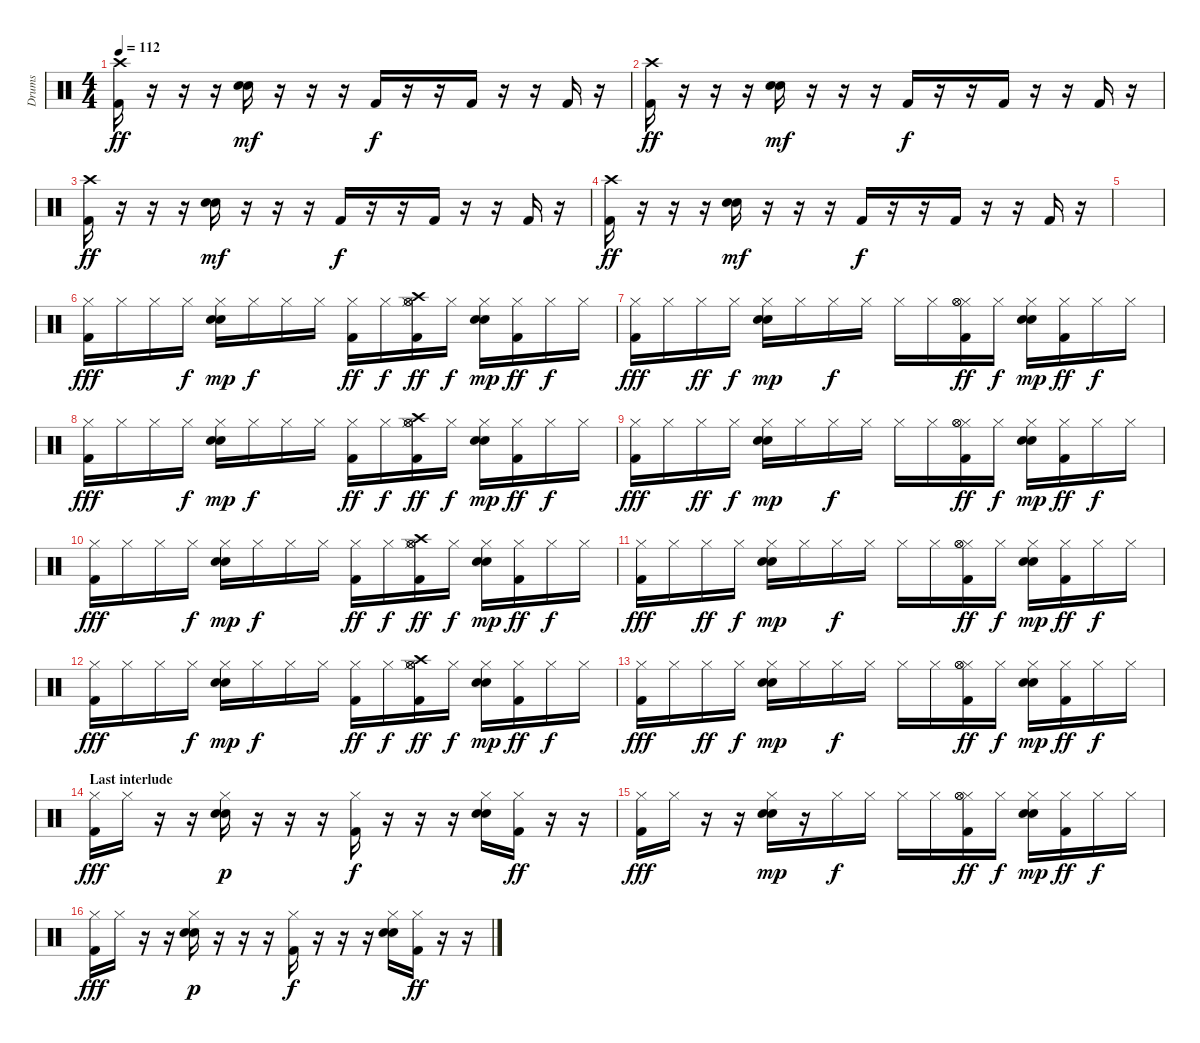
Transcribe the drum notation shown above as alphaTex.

\track ("Drums" "Drums") {instrument percussion}
\staff {score}
\articulation defaults
\ts (4 4)
\tempo 112
\clef neutral
\ks c
("Kick (hit) 2" "Crash high (hit)").16{dy ff} r.16 r.16 r.16 ("Snare (hit) 2" "Hand Clap (hit)").16{dy mf} r.16 r.16 r.16 "Kick (hit) 2".16{dy f} r.16 r.16 "Kick (hit) 2".16 r.16 r.16 "Kick (hit) 2".16 r.16 |
("Kick (hit) 2" "Crash high (hit)").16{dy ff} r.16 r.16 r.16 ("Snare (hit) 2" "Hand Clap (hit)").16{dy mf} r.16 r.16 r.16 "Kick (hit) 2".16{dy f} r.16 r.16 "Kick (hit) 2".16 r.16 r.16 "Kick (hit) 2".16 r.16 |
("Kick (hit) 2" "Crash high (hit)").16{dy ff} r.16 r.16 r.16 ("Snare (hit) 2" "Hand Clap (hit)").16{dy mf} r.16 r.16 r.16 "Kick (hit) 2".16{dy f} r.16 r.16 "Kick (hit) 2".16 r.16 r.16 "Kick (hit) 2".16 r.16 |
("Kick (hit) 2" "Crash high (hit)").16{dy ff} r.16 r.16 r.16 ("Snare (hit) 2" "Hand Clap (hit)").16{dy mf} r.16 r.16 r.16 "Kick (hit) 2".16{dy f} r.16 r.16 "Kick (hit) 2".16 r.16 r.16 "Kick (hit) 2".16 r.16 |
|
("Kick (hit) 2" "Hi-Hat (closed)").16{dy fff} "Hi-Hat (closed)".16 "Hi-Hat (closed)".16 "Hi-Hat (closed)".16{dy f} ("Snare (hit) 2" "Hi-Hat (closed)" "Hand Clap (hit)").16{dy mp} "Hi-Hat (closed)".16{dy f} "Hi-Hat (closed)".16 "Hi-Hat (closed)".16 ("Kick (hit) 2" "Hi-Hat (closed)").16{dy ff} "Hi-Hat (closed)".16{dy f} ("Kick (hit) 2" "Crash high (hit)" "Hi-Hat (closed)" "Hi-Hat (open)" "Hi-Hat (open)").16{dy ff} "Hi-Hat (closed)".16{dy f} ("Snare (hit) 2" "Hi-Hat (closed)" "Hand Clap (hit)").16{dy mp} ("Kick (hit) 2" "Hi-Hat (closed)").16{dy ff} "Hi-Hat (closed)".16{dy f} "Hi-Hat (closed)".16 |
("Kick (hit) 2" "Hi-Hat (closed)").16{dy fff} "Hi-Hat (closed)".16 "Hi-Hat (closed)".16{dy ff} "Hi-Hat (closed)".16{dy f} ("Snare (hit) 2" "Hi-Hat (closed)" "Hand Clap (hit)").16{dy mp} "Hi-Hat (closed)".16 "Hi-Hat (closed)".16{dy f} "Hi-Hat (closed)".16 "Hi-Hat (closed)".16 "Hi-Hat (closed)".16 ("Kick (hit) 2" "Hi-Hat (closed)" "Hi-Hat (open)" "Hi-Hat (open)").16{dy ff} "Hi-Hat (closed)".16{dy f} ("Snare (hit) 2" "Hi-Hat (closed)" "Hand Clap (hit)").16{dy mp} ("Kick (hit) 2" "Hi-Hat (closed)").16{dy ff} "Hi-Hat (closed)".16{dy f} "Hi-Hat (closed)".16 |
("Kick (hit) 2" "Hi-Hat (closed)").16{dy fff} "Hi-Hat (closed)".16 "Hi-Hat (closed)".16 "Hi-Hat (closed)".16{dy f} ("Snare (hit) 2" "Hi-Hat (closed)" "Hand Clap (hit)").16{dy mp} "Hi-Hat (closed)".16{dy f} "Hi-Hat (closed)".16 "Hi-Hat (closed)".16 ("Kick (hit) 2" "Hi-Hat (closed)").16{dy ff} "Hi-Hat (closed)".16{dy f} ("Kick (hit) 2" "Crash high (hit)" "Hi-Hat (closed)" "Hi-Hat (open)" "Hi-Hat (open)").16{dy ff} "Hi-Hat (closed)".16{dy f} ("Snare (hit) 2" "Hi-Hat (closed)" "Hand Clap (hit)").16{dy mp} ("Kick (hit) 2" "Hi-Hat (closed)").16{dy ff} "Hi-Hat (closed)".16{dy f} "Hi-Hat (closed)".16 |
("Kick (hit) 2" "Hi-Hat (closed)").16{dy fff} "Hi-Hat (closed)".16 "Hi-Hat (closed)".16{dy ff} "Hi-Hat (closed)".16{dy f} ("Snare (hit) 2" "Hi-Hat (closed)" "Hand Clap (hit)").16{dy mp} "Hi-Hat (closed)".16 "Hi-Hat (closed)".16{dy f} "Hi-Hat (closed)".16 "Hi-Hat (closed)".16 "Hi-Hat (closed)".16 ("Kick (hit) 2" "Hi-Hat (closed)" "Hi-Hat (open)" "Hi-Hat (open)").16{dy ff} "Hi-Hat (closed)".16{dy f} ("Snare (hit) 2" "Hi-Hat (closed)" "Hand Clap (hit)").16{dy mp} ("Kick (hit) 2" "Hi-Hat (closed)").16{dy ff} "Hi-Hat (closed)".16{dy f} "Hi-Hat (closed)".16 |
("Kick (hit) 2" "Hi-Hat (closed)").16{dy fff} "Hi-Hat (closed)".16 "Hi-Hat (closed)".16 "Hi-Hat (closed)".16{dy f} ("Snare (hit) 2" "Hi-Hat (closed)" "Hand Clap (hit)").16{dy mp} "Hi-Hat (closed)".16{dy f} "Hi-Hat (closed)".16 "Hi-Hat (closed)".16 ("Kick (hit) 2" "Hi-Hat (closed)").16{dy ff} "Hi-Hat (closed)".16{dy f} ("Kick (hit) 2" "Crash high (hit)" "Hi-Hat (closed)" "Hi-Hat (open)" "Hi-Hat (open)").16{dy ff} "Hi-Hat (closed)".16{dy f} ("Snare (hit) 2" "Hi-Hat (closed)" "Hand Clap (hit)").16{dy mp} ("Kick (hit) 2" "Hi-Hat (closed)").16{dy ff} "Hi-Hat (closed)".16{dy f} "Hi-Hat (closed)".16 |
("Kick (hit) 2" "Hi-Hat (closed)").16{dy fff} "Hi-Hat (closed)".16 "Hi-Hat (closed)".16{dy ff} "Hi-Hat (closed)".16{dy f} ("Snare (hit) 2" "Hi-Hat (closed)" "Hand Clap (hit)").16{dy mp} "Hi-Hat (closed)".16 "Hi-Hat (closed)".16{dy f} "Hi-Hat (closed)".16 "Hi-Hat (closed)".16 "Hi-Hat (closed)".16 ("Kick (hit) 2" "Hi-Hat (closed)" "Hi-Hat (open)" "Hi-Hat (open)").16{dy ff} "Hi-Hat (closed)".16{dy f} ("Snare (hit) 2" "Hi-Hat (closed)" "Hand Clap (hit)").16{dy mp} ("Kick (hit) 2" "Hi-Hat (closed)").16{dy ff} "Hi-Hat (closed)".16{dy f} "Hi-Hat (closed)".16 |
("Kick (hit) 2" "Hi-Hat (closed)").16{dy fff} "Hi-Hat (closed)".16 "Hi-Hat (closed)".16 "Hi-Hat (closed)".16{dy f} ("Snare (hit) 2" "Hi-Hat (closed)" "Hand Clap (hit)").16{dy mp} "Hi-Hat (closed)".16{dy f} "Hi-Hat (closed)".16 "Hi-Hat (closed)".16 ("Kick (hit) 2" "Hi-Hat (closed)").16{dy ff} "Hi-Hat (closed)".16{dy f} ("Kick (hit) 2" "Crash high (hit)" "Hi-Hat (closed)" "Hi-Hat (open)" "Hi-Hat (open)").16{dy ff} "Hi-Hat (closed)".16{dy f} ("Snare (hit) 2" "Hi-Hat (closed)" "Hand Clap (hit)").16{dy mp} ("Kick (hit) 2" "Hi-Hat (closed)").16{dy ff} "Hi-Hat (closed)".16{dy f} "Hi-Hat (closed)".16 |
("Kick (hit) 2" "Hi-Hat (closed)").16{dy fff} "Hi-Hat (closed)".16 "Hi-Hat (closed)".16{dy ff} "Hi-Hat (closed)".16{dy f} ("Snare (hit) 2" "Hi-Hat (closed)" "Hand Clap (hit)").16{dy mp} "Hi-Hat (closed)".16 "Hi-Hat (closed)".16{dy f} "Hi-Hat (closed)".16 "Hi-Hat (closed)".16 "Hi-Hat (closed)".16 ("Kick (hit) 2" "Hi-Hat (closed)" "Hi-Hat (open)" "Hi-Hat (open)").16{dy ff} "Hi-Hat (closed)".16{dy f} ("Snare (hit) 2" "Hi-Hat (closed)" "Hand Clap (hit)").16{dy mp} ("Kick (hit) 2" "Hi-Hat (closed)").16{dy ff} "Hi-Hat (closed)".16{dy f} "Hi-Hat (closed)".16 |
\section ("" "Last interlude")
("Kick (hit) 2" "Hi-Hat (closed)").16{dy fff} "Hi-Hat (closed)".16 r.16 r.16 ("Snare (hit) 2" "Hi-Hat (closed)" "Hand Clap (hit)").16{dy p} r.16 r.16 r.16 ("Kick (hit) 2" "Hi-Hat (closed)").16{dy f} r.16 r.16 r.16 ("Snare (hit) 2" "Hi-Hat (closed)" "Hand Clap (hit)").16 ("Kick (hit) 2" "Hi-Hat (closed)").16{dy ff} r.16 r.16 |
("Kick (hit) 2" "Hi-Hat (closed)").16{dy fff} "Hi-Hat (closed)".16 r.16 r.16 ("Snare (hit) 2" "Hi-Hat (closed)" "Hand Clap (hit)").16{dy mp} r.16 "Hi-Hat (closed)".16{dy f} "Hi-Hat (closed)".16 "Hi-Hat (closed)".16 "Hi-Hat (closed)".16 ("Kick (hit) 2" "Hi-Hat (closed)" "Hi-Hat (open)" "Hi-Hat (open)").16{dy ff} "Hi-Hat (closed)".16{dy f} ("Snare (hit) 2" "Hi-Hat (closed)" "Hand Clap (hit)").16{dy mp} ("Kick (hit) 2" "Hi-Hat (closed)").16{dy ff} "Hi-Hat (closed)".16{dy f} "Hi-Hat (closed)".16 |
("Kick (hit) 2" "Hi-Hat (closed)").16{dy fff} "Hi-Hat (closed)".16 r.16 r.16 ("Snare (hit) 2" "Hi-Hat (closed)" "Hand Clap (hit)").16{dy p} r.16 r.16 r.16 ("Kick (hit) 2" "Hi-Hat (closed)").16{dy f} r.16 r.16 r.16 ("Snare (hit) 2" "Hi-Hat (closed)" "Hand Clap (hit)").16 ("Kick (hit) 2" "Hi-Hat (closed)").16{dy ff} r.16 r.16
